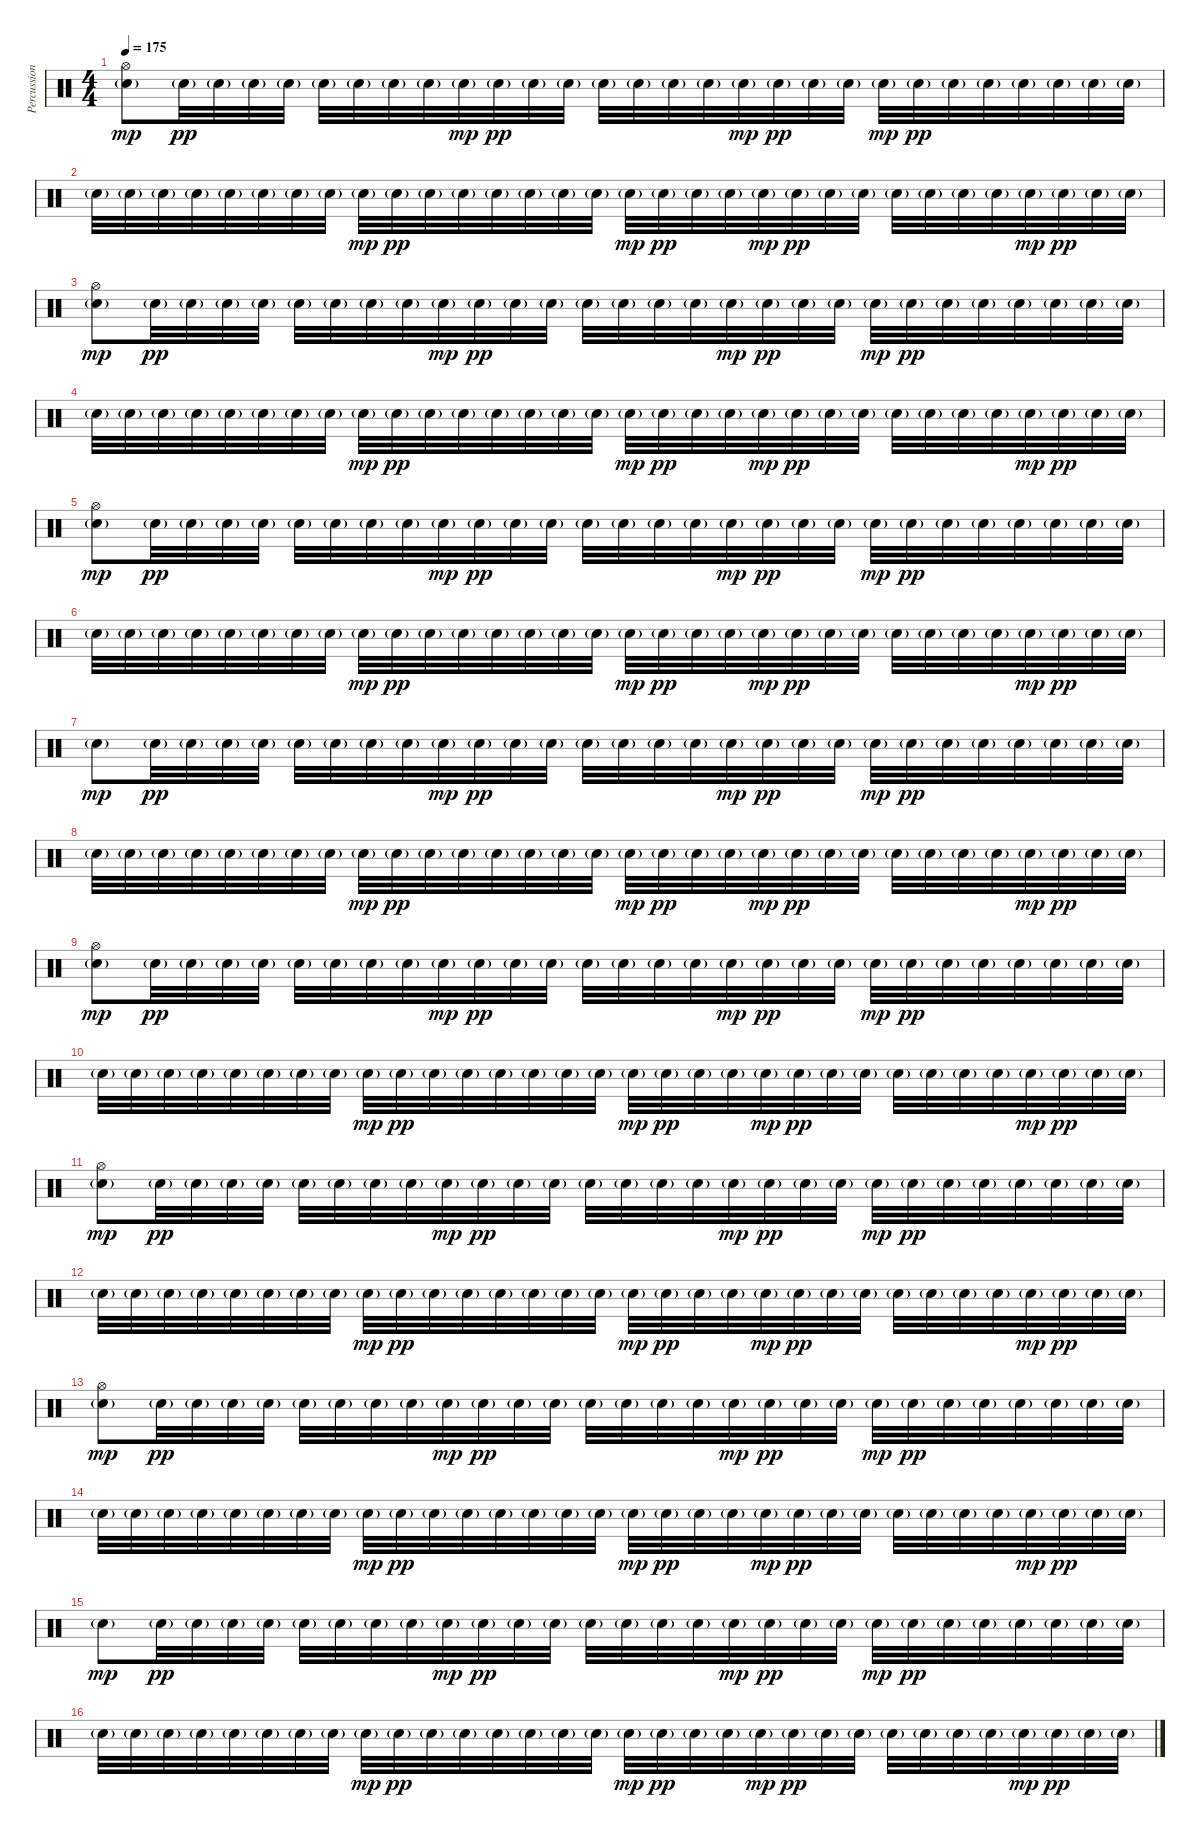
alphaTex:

\track ("Percussion" "Percussion") {instrument percussion}
\staff {score}
\articulation defaults
\ts (4 4)
\tempo 175
\clef neutral
\ks c
("Hi-Hat (open)" "Electric Snare (hit)"{g}).8{dy mp} "Electric Snare (hit)"{g}.32{dy pp} "Electric Snare (hit)"{g}.32 "Electric Snare (hit)"{g}.32 "Electric Snare (hit)"{g}.32 "Electric Snare (hit)"{g}.32 "Electric Snare (hit)"{g}.32 "Electric Snare (hit)"{g}.32 "Electric Snare (hit)"{g}.32 "Electric Snare (hit)"{g}.32{dy mp} "Electric Snare (hit)"{g}.32{dy pp} "Electric Snare (hit)"{g}.32 "Electric Snare (hit)"{g}.32 "Electric Snare (hit)"{g}.32 "Electric Snare (hit)"{g}.32 "Electric Snare (hit)"{g}.32 "Electric Snare (hit)"{g}.32 "Electric Snare (hit)"{g}.32{dy mp} "Electric Snare (hit)"{g}.32{dy pp} "Electric Snare (hit)"{g}.32 "Electric Snare (hit)"{g}.32 "Electric Snare (hit)"{g}.32{dy mp} "Electric Snare (hit)"{g}.32{dy pp} "Electric Snare (hit)"{g}.32 "Electric Snare (hit)"{g}.32 "Electric Snare (hit)"{g}.32 "Electric Snare (hit)"{g}.32 "Electric Snare (hit)"{g}.32 "Electric Snare (hit)"{g}.32 |
"Electric Snare (hit)"{g}.32 "Electric Snare (hit)"{g}.32 "Electric Snare (hit)"{g}.32 "Electric Snare (hit)"{g}.32 "Electric Snare (hit)"{g}.32 "Electric Snare (hit)"{g}.32 "Electric Snare (hit)"{g}.32 "Electric Snare (hit)"{g}.32 "Electric Snare (hit)"{g}.32{dy mp} "Electric Snare (hit)"{g}.32{dy pp} "Electric Snare (hit)"{g}.32 "Electric Snare (hit)"{g}.32 "Electric Snare (hit)"{g}.32 "Electric Snare (hit)"{g}.32 "Electric Snare (hit)"{g}.32 "Electric Snare (hit)"{g}.32 "Electric Snare (hit)"{g}.32{dy mp} "Electric Snare (hit)"{g}.32{dy pp} "Electric Snare (hit)"{g}.32 "Electric Snare (hit)"{g}.32 "Electric Snare (hit)"{g}.32{dy mp} "Electric Snare (hit)"{g}.32{dy pp} "Electric Snare (hit)"{g}.32 "Electric Snare (hit)"{g}.32 "Electric Snare (hit)"{g}.32 "Electric Snare (hit)"{g}.32 "Electric Snare (hit)"{g}.32 "Electric Snare (hit)"{g}.32 "Electric Snare (hit)"{g}.32{dy mp} "Electric Snare (hit)"{g}.32{dy pp} "Electric Snare (hit)"{g}.32 "Electric Snare (hit)"{g}.32 |
("Hi-Hat (open)" "Electric Snare (hit)"{g}).8{dy mp} "Electric Snare (hit)"{g}.32{dy pp} "Electric Snare (hit)"{g}.32 "Electric Snare (hit)"{g}.32 "Electric Snare (hit)"{g}.32 "Electric Snare (hit)"{g}.32 "Electric Snare (hit)"{g}.32 "Electric Snare (hit)"{g}.32 "Electric Snare (hit)"{g}.32 "Electric Snare (hit)"{g}.32{dy mp} "Electric Snare (hit)"{g}.32{dy pp} "Electric Snare (hit)"{g}.32 "Electric Snare (hit)"{g}.32 "Electric Snare (hit)"{g}.32 "Electric Snare (hit)"{g}.32 "Electric Snare (hit)"{g}.32 "Electric Snare (hit)"{g}.32 "Electric Snare (hit)"{g}.32{dy mp} "Electric Snare (hit)"{g}.32{dy pp} "Electric Snare (hit)"{g}.32 "Electric Snare (hit)"{g}.32 "Electric Snare (hit)"{g}.32{dy mp} "Electric Snare (hit)"{g}.32{dy pp} "Electric Snare (hit)"{g}.32 "Electric Snare (hit)"{g}.32 "Electric Snare (hit)"{g}.32 "Electric Snare (hit)"{g}.32 "Electric Snare (hit)"{g}.32 "Electric Snare (hit)"{g}.32 |
"Electric Snare (hit)"{g}.32 "Electric Snare (hit)"{g}.32 "Electric Snare (hit)"{g}.32 "Electric Snare (hit)"{g}.32 "Electric Snare (hit)"{g}.32 "Electric Snare (hit)"{g}.32 "Electric Snare (hit)"{g}.32 "Electric Snare (hit)"{g}.32 "Electric Snare (hit)"{g}.32{dy mp} "Electric Snare (hit)"{g}.32{dy pp} "Electric Snare (hit)"{g}.32 "Electric Snare (hit)"{g}.32 "Electric Snare (hit)"{g}.32 "Electric Snare (hit)"{g}.32 "Electric Snare (hit)"{g}.32 "Electric Snare (hit)"{g}.32 "Electric Snare (hit)"{g}.32{dy mp} "Electric Snare (hit)"{g}.32{dy pp} "Electric Snare (hit)"{g}.32 "Electric Snare (hit)"{g}.32 "Electric Snare (hit)"{g}.32{dy mp} "Electric Snare (hit)"{g}.32{dy pp} "Electric Snare (hit)"{g}.32 "Electric Snare (hit)"{g}.32 "Electric Snare (hit)"{g}.32 "Electric Snare (hit)"{g}.32 "Electric Snare (hit)"{g}.32 "Electric Snare (hit)"{g}.32 "Electric Snare (hit)"{g}.32{dy mp} "Electric Snare (hit)"{g}.32{dy pp} "Electric Snare (hit)"{g}.32 "Electric Snare (hit)"{g}.32 |
("Hi-Hat (open)" "Electric Snare (hit)"{g}).8{dy mp} "Electric Snare (hit)"{g}.32{dy pp} "Electric Snare (hit)"{g}.32 "Electric Snare (hit)"{g}.32 "Electric Snare (hit)"{g}.32 "Electric Snare (hit)"{g}.32 "Electric Snare (hit)"{g}.32 "Electric Snare (hit)"{g}.32 "Electric Snare (hit)"{g}.32 "Electric Snare (hit)"{g}.32{dy mp} "Electric Snare (hit)"{g}.32{dy pp} "Electric Snare (hit)"{g}.32 "Electric Snare (hit)"{g}.32 "Electric Snare (hit)"{g}.32 "Electric Snare (hit)"{g}.32 "Electric Snare (hit)"{g}.32 "Electric Snare (hit)"{g}.32 "Electric Snare (hit)"{g}.32{dy mp} "Electric Snare (hit)"{g}.32{dy pp} "Electric Snare (hit)"{g}.32 "Electric Snare (hit)"{g}.32 "Electric Snare (hit)"{g}.32{dy mp} "Electric Snare (hit)"{g}.32{dy pp} "Electric Snare (hit)"{g}.32 "Electric Snare (hit)"{g}.32 "Electric Snare (hit)"{g}.32 "Electric Snare (hit)"{g}.32 "Electric Snare (hit)"{g}.32 "Electric Snare (hit)"{g}.32 |
"Electric Snare (hit)"{g}.32 "Electric Snare (hit)"{g}.32 "Electric Snare (hit)"{g}.32 "Electric Snare (hit)"{g}.32 "Electric Snare (hit)"{g}.32 "Electric Snare (hit)"{g}.32 "Electric Snare (hit)"{g}.32 "Electric Snare (hit)"{g}.32 "Electric Snare (hit)"{g}.32{dy mp} "Electric Snare (hit)"{g}.32{dy pp} "Electric Snare (hit)"{g}.32 "Electric Snare (hit)"{g}.32 "Electric Snare (hit)"{g}.32 "Electric Snare (hit)"{g}.32 "Electric Snare (hit)"{g}.32 "Electric Snare (hit)"{g}.32 "Electric Snare (hit)"{g}.32{dy mp} "Electric Snare (hit)"{g}.32{dy pp} "Electric Snare (hit)"{g}.32 "Electric Snare (hit)"{g}.32 "Electric Snare (hit)"{g}.32{dy mp} "Electric Snare (hit)"{g}.32{dy pp} "Electric Snare (hit)"{g}.32 "Electric Snare (hit)"{g}.32 "Electric Snare (hit)"{g}.32 "Electric Snare (hit)"{g}.32 "Electric Snare (hit)"{g}.32 "Electric Snare (hit)"{g}.32 "Electric Snare (hit)"{g}.32{dy mp} "Electric Snare (hit)"{g}.32{dy pp} "Electric Snare (hit)"{g}.32 "Electric Snare (hit)"{g}.32 |
"Electric Snare (hit)"{g}.8{dy mp} "Electric Snare (hit)"{g}.32{dy pp} "Electric Snare (hit)"{g}.32 "Electric Snare (hit)"{g}.32 "Electric Snare (hit)"{g}.32 "Electric Snare (hit)"{g}.32 "Electric Snare (hit)"{g}.32 "Electric Snare (hit)"{g}.32 "Electric Snare (hit)"{g}.32 "Electric Snare (hit)"{g}.32{dy mp} "Electric Snare (hit)"{g}.32{dy pp} "Electric Snare (hit)"{g}.32 "Electric Snare (hit)"{g}.32 "Electric Snare (hit)"{g}.32 "Electric Snare (hit)"{g}.32 "Electric Snare (hit)"{g}.32 "Electric Snare (hit)"{g}.32 "Electric Snare (hit)"{g}.32{dy mp} "Electric Snare (hit)"{g}.32{dy pp} "Electric Snare (hit)"{g}.32 "Electric Snare (hit)"{g}.32 "Electric Snare (hit)"{g}.32{dy mp} "Electric Snare (hit)"{g}.32{dy pp} "Electric Snare (hit)"{g}.32 "Electric Snare (hit)"{g}.32 "Electric Snare (hit)"{g}.32 "Electric Snare (hit)"{g}.32 "Electric Snare (hit)"{g}.32 "Electric Snare (hit)"{g}.32 |
"Electric Snare (hit)"{g}.32 "Electric Snare (hit)"{g}.32 "Electric Snare (hit)"{g}.32 "Electric Snare (hit)"{g}.32 "Electric Snare (hit)"{g}.32 "Electric Snare (hit)"{g}.32 "Electric Snare (hit)"{g}.32 "Electric Snare (hit)"{g}.32 "Electric Snare (hit)"{g}.32{dy mp} "Electric Snare (hit)"{g}.32{dy pp} "Electric Snare (hit)"{g}.32 "Electric Snare (hit)"{g}.32 "Electric Snare (hit)"{g}.32 "Electric Snare (hit)"{g}.32 "Electric Snare (hit)"{g}.32 "Electric Snare (hit)"{g}.32 "Electric Snare (hit)"{g}.32{dy mp} "Electric Snare (hit)"{g}.32{dy pp} "Electric Snare (hit)"{g}.32 "Electric Snare (hit)"{g}.32 "Electric Snare (hit)"{g}.32{dy mp} "Electric Snare (hit)"{g}.32{dy pp} "Electric Snare (hit)"{g}.32 "Electric Snare (hit)"{g}.32 "Electric Snare (hit)"{g}.32 "Electric Snare (hit)"{g}.32 "Electric Snare (hit)"{g}.32 "Electric Snare (hit)"{g}.32 "Electric Snare (hit)"{g}.32{dy mp} "Electric Snare (hit)"{g}.32{dy pp} "Electric Snare (hit)"{g}.32 "Electric Snare (hit)"{g}.32 |
("Hi-Hat (open)" "Electric Snare (hit)"{g}).8{dy mp} "Electric Snare (hit)"{g}.32{dy pp} "Electric Snare (hit)"{g}.32 "Electric Snare (hit)"{g}.32 "Electric Snare (hit)"{g}.32 "Electric Snare (hit)"{g}.32 "Electric Snare (hit)"{g}.32 "Electric Snare (hit)"{g}.32 "Electric Snare (hit)"{g}.32 "Electric Snare (hit)"{g}.32{dy mp} "Electric Snare (hit)"{g}.32{dy pp} "Electric Snare (hit)"{g}.32 "Electric Snare (hit)"{g}.32 "Electric Snare (hit)"{g}.32 "Electric Snare (hit)"{g}.32 "Electric Snare (hit)"{g}.32 "Electric Snare (hit)"{g}.32 "Electric Snare (hit)"{g}.32{dy mp} "Electric Snare (hit)"{g}.32{dy pp} "Electric Snare (hit)"{g}.32 "Electric Snare (hit)"{g}.32 "Electric Snare (hit)"{g}.32{dy mp} "Electric Snare (hit)"{g}.32{dy pp} "Electric Snare (hit)"{g}.32 "Electric Snare (hit)"{g}.32 "Electric Snare (hit)"{g}.32 "Electric Snare (hit)"{g}.32 "Electric Snare (hit)"{g}.32 "Electric Snare (hit)"{g}.32 |
"Electric Snare (hit)"{g}.32 "Electric Snare (hit)"{g}.32 "Electric Snare (hit)"{g}.32 "Electric Snare (hit)"{g}.32 "Electric Snare (hit)"{g}.32 "Electric Snare (hit)"{g}.32 "Electric Snare (hit)"{g}.32 "Electric Snare (hit)"{g}.32 "Electric Snare (hit)"{g}.32{dy mp} "Electric Snare (hit)"{g}.32{dy pp} "Electric Snare (hit)"{g}.32 "Electric Snare (hit)"{g}.32 "Electric Snare (hit)"{g}.32 "Electric Snare (hit)"{g}.32 "Electric Snare (hit)"{g}.32 "Electric Snare (hit)"{g}.32 "Electric Snare (hit)"{g}.32{dy mp} "Electric Snare (hit)"{g}.32{dy pp} "Electric Snare (hit)"{g}.32 "Electric Snare (hit)"{g}.32 "Electric Snare (hit)"{g}.32{dy mp} "Electric Snare (hit)"{g}.32{dy pp} "Electric Snare (hit)"{g}.32 "Electric Snare (hit)"{g}.32 "Electric Snare (hit)"{g}.32 "Electric Snare (hit)"{g}.32 "Electric Snare (hit)"{g}.32 "Electric Snare (hit)"{g}.32 "Electric Snare (hit)"{g}.32{dy mp} "Electric Snare (hit)"{g}.32{dy pp} "Electric Snare (hit)"{g}.32 "Electric Snare (hit)"{g}.32 |
("Hi-Hat (open)" "Electric Snare (hit)"{g}).8{dy mp} "Electric Snare (hit)"{g}.32{dy pp} "Electric Snare (hit)"{g}.32 "Electric Snare (hit)"{g}.32 "Electric Snare (hit)"{g}.32 "Electric Snare (hit)"{g}.32 "Electric Snare (hit)"{g}.32 "Electric Snare (hit)"{g}.32 "Electric Snare (hit)"{g}.32 "Electric Snare (hit)"{g}.32{dy mp} "Electric Snare (hit)"{g}.32{dy pp} "Electric Snare (hit)"{g}.32 "Electric Snare (hit)"{g}.32 "Electric Snare (hit)"{g}.32 "Electric Snare (hit)"{g}.32 "Electric Snare (hit)"{g}.32 "Electric Snare (hit)"{g}.32 "Electric Snare (hit)"{g}.32{dy mp} "Electric Snare (hit)"{g}.32{dy pp} "Electric Snare (hit)"{g}.32 "Electric Snare (hit)"{g}.32 "Electric Snare (hit)"{g}.32{dy mp} "Electric Snare (hit)"{g}.32{dy pp} "Electric Snare (hit)"{g}.32 "Electric Snare (hit)"{g}.32 "Electric Snare (hit)"{g}.32 "Electric Snare (hit)"{g}.32 "Electric Snare (hit)"{g}.32 "Electric Snare (hit)"{g}.32 |
"Electric Snare (hit)"{g}.32 "Electric Snare (hit)"{g}.32 "Electric Snare (hit)"{g}.32 "Electric Snare (hit)"{g}.32 "Electric Snare (hit)"{g}.32 "Electric Snare (hit)"{g}.32 "Electric Snare (hit)"{g}.32 "Electric Snare (hit)"{g}.32 "Electric Snare (hit)"{g}.32{dy mp} "Electric Snare (hit)"{g}.32{dy pp} "Electric Snare (hit)"{g}.32 "Electric Snare (hit)"{g}.32 "Electric Snare (hit)"{g}.32 "Electric Snare (hit)"{g}.32 "Electric Snare (hit)"{g}.32 "Electric Snare (hit)"{g}.32 "Electric Snare (hit)"{g}.32{dy mp} "Electric Snare (hit)"{g}.32{dy pp} "Electric Snare (hit)"{g}.32 "Electric Snare (hit)"{g}.32 "Electric Snare (hit)"{g}.32{dy mp} "Electric Snare (hit)"{g}.32{dy pp} "Electric Snare (hit)"{g}.32 "Electric Snare (hit)"{g}.32 "Electric Snare (hit)"{g}.32 "Electric Snare (hit)"{g}.32 "Electric Snare (hit)"{g}.32 "Electric Snare (hit)"{g}.32 "Electric Snare (hit)"{g}.32{dy mp} "Electric Snare (hit)"{g}.32{dy pp} "Electric Snare (hit)"{g}.32 "Electric Snare (hit)"{g}.32 |
("Hi-Hat (open)" "Electric Snare (hit)"{g}).8{dy mp} "Electric Snare (hit)"{g}.32{dy pp} "Electric Snare (hit)"{g}.32 "Electric Snare (hit)"{g}.32 "Electric Snare (hit)"{g}.32 "Electric Snare (hit)"{g}.32 "Electric Snare (hit)"{g}.32 "Electric Snare (hit)"{g}.32 "Electric Snare (hit)"{g}.32 "Electric Snare (hit)"{g}.32{dy mp} "Electric Snare (hit)"{g}.32{dy pp} "Electric Snare (hit)"{g}.32 "Electric Snare (hit)"{g}.32 "Electric Snare (hit)"{g}.32 "Electric Snare (hit)"{g}.32 "Electric Snare (hit)"{g}.32 "Electric Snare (hit)"{g}.32 "Electric Snare (hit)"{g}.32{dy mp} "Electric Snare (hit)"{g}.32{dy pp} "Electric Snare (hit)"{g}.32 "Electric Snare (hit)"{g}.32 "Electric Snare (hit)"{g}.32{dy mp} "Electric Snare (hit)"{g}.32{dy pp} "Electric Snare (hit)"{g}.32 "Electric Snare (hit)"{g}.32 "Electric Snare (hit)"{g}.32 "Electric Snare (hit)"{g}.32 "Electric Snare (hit)"{g}.32 "Electric Snare (hit)"{g}.32 |
"Electric Snare (hit)"{g}.32 "Electric Snare (hit)"{g}.32 "Electric Snare (hit)"{g}.32 "Electric Snare (hit)"{g}.32 "Electric Snare (hit)"{g}.32 "Electric Snare (hit)"{g}.32 "Electric Snare (hit)"{g}.32 "Electric Snare (hit)"{g}.32 "Electric Snare (hit)"{g}.32{dy mp} "Electric Snare (hit)"{g}.32{dy pp} "Electric Snare (hit)"{g}.32 "Electric Snare (hit)"{g}.32 "Electric Snare (hit)"{g}.32 "Electric Snare (hit)"{g}.32 "Electric Snare (hit)"{g}.32 "Electric Snare (hit)"{g}.32 "Electric Snare (hit)"{g}.32{dy mp} "Electric Snare (hit)"{g}.32{dy pp} "Electric Snare (hit)"{g}.32 "Electric Snare (hit)"{g}.32 "Electric Snare (hit)"{g}.32{dy mp} "Electric Snare (hit)"{g}.32{dy pp} "Electric Snare (hit)"{g}.32 "Electric Snare (hit)"{g}.32 "Electric Snare (hit)"{g}.32 "Electric Snare (hit)"{g}.32 "Electric Snare (hit)"{g}.32 "Electric Snare (hit)"{g}.32 "Electric Snare (hit)"{g}.32{dy mp} "Electric Snare (hit)"{g}.32{dy pp} "Electric Snare (hit)"{g}.32 "Electric Snare (hit)"{g}.32 |
"Electric Snare (hit)"{g}.8{dy mp} "Electric Snare (hit)"{g}.32{dy pp} "Electric Snare (hit)"{g}.32 "Electric Snare (hit)"{g}.32 "Electric Snare (hit)"{g}.32 "Electric Snare (hit)"{g}.32 "Electric Snare (hit)"{g}.32 "Electric Snare (hit)"{g}.32 "Electric Snare (hit)"{g}.32 "Electric Snare (hit)"{g}.32{dy mp} "Electric Snare (hit)"{g}.32{dy pp} "Electric Snare (hit)"{g}.32 "Electric Snare (hit)"{g}.32 "Electric Snare (hit)"{g}.32 "Electric Snare (hit)"{g}.32 "Electric Snare (hit)"{g}.32 "Electric Snare (hit)"{g}.32 "Electric Snare (hit)"{g}.32{dy mp} "Electric Snare (hit)"{g}.32{dy pp} "Electric Snare (hit)"{g}.32 "Electric Snare (hit)"{g}.32 "Electric Snare (hit)"{g}.32{dy mp} "Electric Snare (hit)"{g}.32{dy pp} "Electric Snare (hit)"{g}.32 "Electric Snare (hit)"{g}.32 "Electric Snare (hit)"{g}.32 "Electric Snare (hit)"{g}.32 "Electric Snare (hit)"{g}.32 "Electric Snare (hit)"{g}.32 |
"Electric Snare (hit)"{g}.32 "Electric Snare (hit)"{g}.32 "Electric Snare (hit)"{g}.32 "Electric Snare (hit)"{g}.32 "Electric Snare (hit)"{g}.32 "Electric Snare (hit)"{g}.32 "Electric Snare (hit)"{g}.32 "Electric Snare (hit)"{g}.32 "Electric Snare (hit)"{g}.32{dy mp} "Electric Snare (hit)"{g}.32{dy pp} "Electric Snare (hit)"{g}.32 "Electric Snare (hit)"{g}.32 "Electric Snare (hit)"{g}.32 "Electric Snare (hit)"{g}.32 "Electric Snare (hit)"{g}.32 "Electric Snare (hit)"{g}.32 "Electric Snare (hit)"{g}.32{dy mp} "Electric Snare (hit)"{g}.32{dy pp} "Electric Snare (hit)"{g}.32 "Electric Snare (hit)"{g}.32 "Electric Snare (hit)"{g}.32{dy mp} "Electric Snare (hit)"{g}.32{dy pp} "Electric Snare (hit)"{g}.32 "Electric Snare (hit)"{g}.32 "Electric Snare (hit)"{g}.32 "Electric Snare (hit)"{g}.32 "Electric Snare (hit)"{g}.32 "Electric Snare (hit)"{g}.32 "Electric Snare (hit)"{g}.32{dy mp} "Electric Snare (hit)"{g}.32{dy pp} "Electric Snare (hit)"{g}.32 "Electric Snare (hit)"{g}.32
